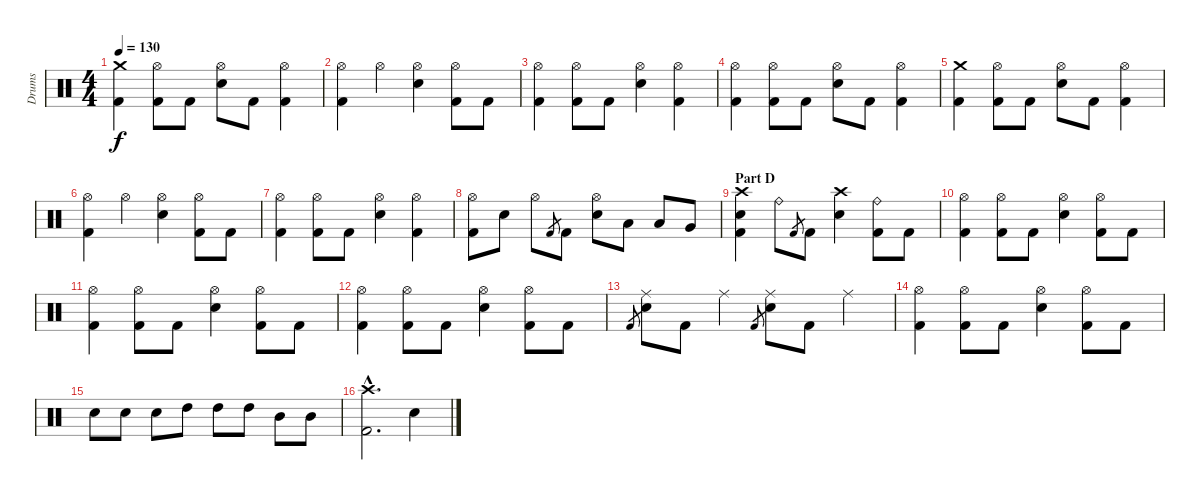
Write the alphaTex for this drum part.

\track ("Drums" "Drums") {instrument percussion}
\staff {score}
\articulation defaults
\ts (4 4)
\tempo 130
\clef neutral
\ks c
("Crash medium (hit)" "Kick (hit) 2").4{dy f} ("Hi-Hat (open)" "Kick (hit) 2").8 "Kick (hit) 2".8 ("Hi-Hat (open)" "Electric Snare (hit)").8 "Kick (hit) 2".8 ("Hi-Hat (open)" "Kick (hit) 2").4 |
("Hi-Hat (open)" "Kick (hit) 2").4 "Hi-Hat (open)".4 ("Hi-Hat (open)" "Electric Snare (hit)").4 ("Hi-Hat (open)" "Kick (hit) 2").8 "Kick (hit) 2".8 |
("Hi-Hat (open)" "Kick (hit) 2").4 ("Hi-Hat (open)" "Kick (hit) 2").8 "Kick (hit) 2".8 ("Hi-Hat (open)" "Electric Snare (hit)").4 ("Hi-Hat (open)" "Kick (hit) 2").4 |
("Hi-Hat (open)" "Kick (hit) 2").4 ("Hi-Hat (open)" "Kick (hit) 2").8 "Kick (hit) 2".8 ("Hi-Hat (open)" "Electric Snare (hit)").8 "Kick (hit) 2".8 ("Hi-Hat (open)" "Kick (hit) 2").4 |
("Crash medium (hit)" "Kick (hit) 2").4 ("Hi-Hat (open)" "Kick (hit) 2").8 "Kick (hit) 2".8 ("Hi-Hat (open)" "Electric Snare (hit)").8 "Kick (hit) 2".8 ("Hi-Hat (open)" "Kick (hit) 2").4 |
("Hi-Hat (open)" "Kick (hit) 2").4 "Hi-Hat (open)".4 ("Hi-Hat (open)" "Electric Snare (hit)").4 ("Hi-Hat (open)" "Kick (hit) 2").8 "Kick (hit) 2".8 |
("Hi-Hat (open)" "Kick (hit) 2").4 ("Hi-Hat (open)" "Kick (hit) 2").8 "Kick (hit) 2".8 ("Hi-Hat (open)" "Electric Snare (hit)").4 ("Hi-Hat (open)" "Kick (hit) 2").4 |
("Hi-Hat (open)" "Kick (hit) 2").8 "Electric Snare (hit)".8 "Hi-Hat (open)".8 "Kick (hit) 2".8{gr} "Kick (hit) 2".8 ("Hi-Hat (open)" "Electric Snare (hit)").8 "Low Tom (hit)".8 "Low Tom (hit)".8 "Very Low Tom (hit)".8 |
\section ("" "Part D")
("Crash high (hit)" "Electric Snare (hit)" "Kick (hit) 2").4 "Ride (bell)".8 "Kick (hit) 2".8{gr} "Kick (hit) 2".8 ("Crash high (hit)" "Electric Snare (hit)").4 ("Ride (bell)" "Kick (hit) 2").8 "Kick (hit) 2".8 |
("Hi-Hat (open)" "Kick (hit) 2").4 ("Hi-Hat (open)" "Kick (hit) 2").8 "Kick (hit) 2".8 ("Hi-Hat (open)" "Electric Snare (hit)").4 ("Hi-Hat (open)" "Kick (hit) 2").8 "Kick (hit) 2".8 |
("Hi-Hat (open)" "Kick (hit) 2").4 ("Hi-Hat (open)" "Kick (hit) 2").8 "Kick (hit) 2".8 ("Hi-Hat (open)" "Electric Snare (hit)").4 ("Hi-Hat (open)" "Kick (hit) 2").8 "Kick (hit) 2".8 |
("Hi-Hat (open)" "Kick (hit) 2").4 ("Hi-Hat (open)" "Kick (hit) 2").8 "Kick (hit) 2".8 ("Hi-Hat (open)" "Electric Snare (hit)").4 ("Hi-Hat (open)" "Kick (hit) 2").8 "Kick (hit) 2".8 |
"Kick (hit) 2".8{gr} ("Ride (middle)" "Electric Snare (hit)").8 "Kick (hit) 2".8 "Ride (middle)".4 "Kick (hit) 2".8{gr} ("Ride (middle)" "Electric Snare (hit)").8 "Kick (hit) 2".8 "Ride (middle)".4 |
("Hi-Hat (open)" "Kick (hit) 2").4 ("Hi-Hat (open)" "Kick (hit) 2").8 "Kick (hit) 2".8 ("Hi-Hat (open)" "Electric Snare (hit)").4 ("Hi-Hat (open)" "Kick (hit) 2").8 "Kick (hit) 2".8 |
"Electric Snare (hit)".8 "Electric Snare (hit)".8 "Electric Snare (hit)".8 "High Tom (hit)".8 "High Tom (hit)".8 "High Tom (hit)".8 "Mid Tom (hit)".8 "Mid Tom (hit)".8 |
("Crash high (hit)"{hac} "Kick (hit) 2"{hac}).2{d} "Electric Snare (hit)".4
